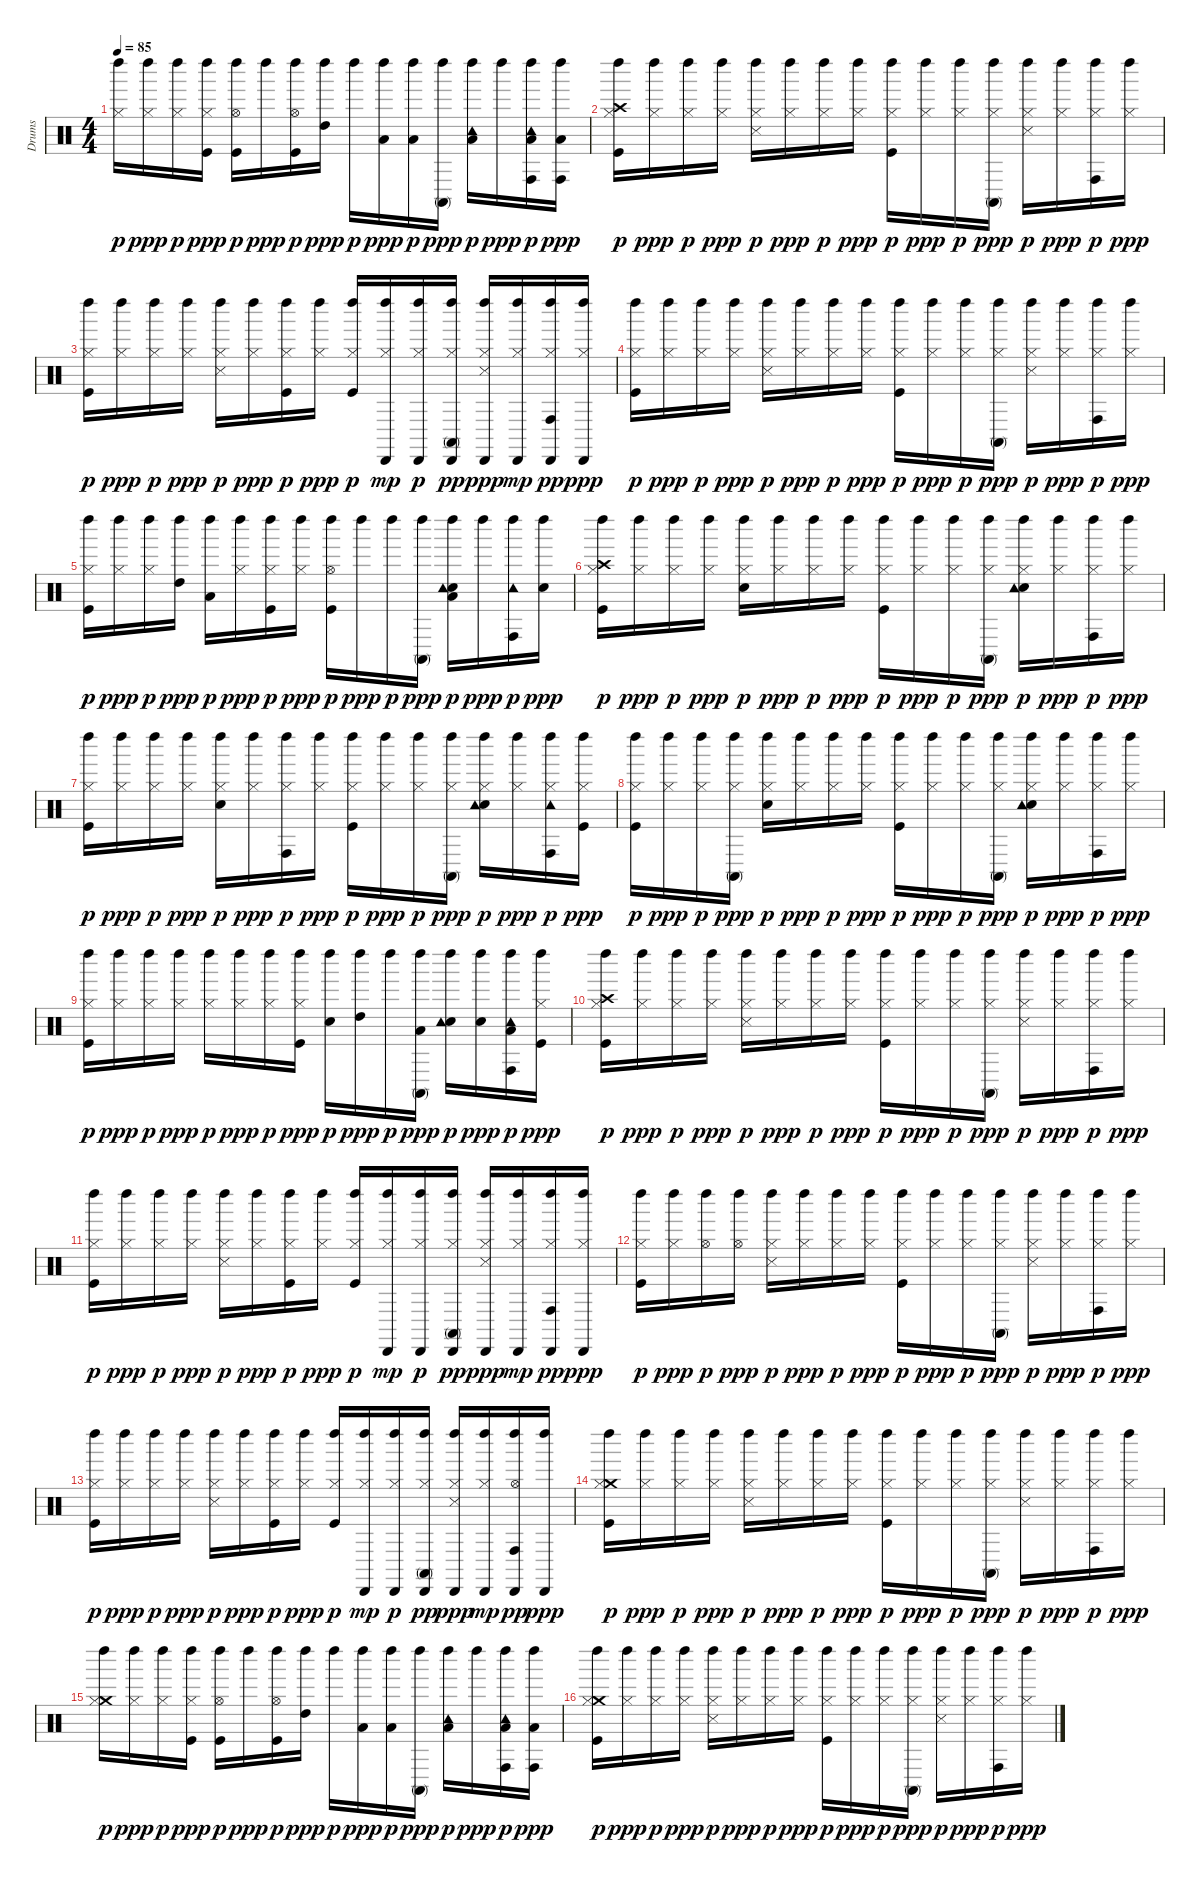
\track ("Drums" "Drums") {instrument percussion}
\staff {score}
\articulation defaults
\ts (4 4)
\tempo 85
\clef neutral
\ks c
("Hi-Hat (closed)" "Left Maraca (hit)").16{dy p} ("Hi-Hat (closed)" "Left Maraca (hit)").16{dy ppp} ("Hi-Hat (closed)" "Left Maraca (hit)").16{dy p} ("Kick (hit)" "Hi-Hat (closed)" "Left Maraca (hit)").16{dy ppp} ("Kick (hit)" "Hi-Hat (open)" "Left Maraca (hit)").16{dy p} "Left Maraca (hit)".16{dy ppp} ("Kick (hit)" "Hi-Hat (open)" "Left Maraca (hit)").16{dy p} ("High Tom (hit)" "Left Maraca (hit)").16{dy ppp} "Left Maraca (hit)".16{dy p} ("Low Tom (hit)" "Left Maraca (hit)").16{dy ppp} ("Low Tom (hit)" "Left Maraca (hit)").16{dy p} ("Conga high (mute)" "Left Maraca (hit)").16{dy ppp} ("Low Tom (hit)" "Tambourine (hit)" "Left Maraca (hit)").16{dy p} "Left Maraca (hit)".16{dy ppp} ("Low Floor Tom (hit)" "Conga high (hit)" "Tambourine (hit)" "Left Maraca (hit)").16{dy p} ("Low Floor Tom (hit)" "Conga high (hit)" "Left Maraca (hit)").16{dy ppp} |
("Kick (hit)" "Hi-Hat (closed)" "Crash high (hit)" "Left Maraca (hit)").16{dy p} ("Hi-Hat (closed)" "Left Maraca (hit)").16{dy ppp} ("Hi-Hat (closed)" "Left Maraca (hit)").16{dy p} ("Hi-Hat (closed)" "Left Maraca (hit)").16{dy ppp} ("Hi-Hat (closed)" "Snare (side stick) 3" "Left Maraca (hit)").16{dy p} ("Hi-Hat (closed)" "Left Maraca (hit)").16{dy ppp} ("Hi-Hat (closed)" "Left Maraca (hit)").16{dy p} ("Hi-Hat (closed)" "Left Maraca (hit)").16{dy ppp} ("Kick (hit)" "Hi-Hat (closed)" "Left Maraca (hit)").16{dy p} ("Hi-Hat (closed)" "Left Maraca (hit)").16{dy ppp} ("Hi-Hat (closed)" "Left Maraca (hit)").16{dy p} ("Hi-Hat (closed)" "Conga high (mute)" "Left Maraca (hit)").16{dy ppp} ("Hi-Hat (closed)" "Snare (side stick) 3" "Left Maraca (hit)").16{dy p} ("Hi-Hat (closed)" "Left Maraca (hit)").16{dy ppp} ("Hi-Hat (closed)" "Conga high (hit)" "Left Maraca (hit)").16{dy p} ("Hi-Hat (closed)" "Left Maraca (hit)").16{dy ppp} |
("Kick (hit)" "Hi-Hat (closed)" "Left Maraca (hit)").16{dy p} ("Hi-Hat (closed)" "Left Maraca (hit)").16{dy ppp} ("Hi-Hat (closed)" "Left Maraca (hit)").16{dy p} ("Hi-Hat (closed)" "Left Maraca (hit)").16{dy ppp} ("Hi-Hat (closed)" "Snare (side stick) 3" "Left Maraca (hit)").16{dy p} ("Hi-Hat (closed)" "Left Maraca (hit)").16{dy ppp} ("Kick (hit)" "Hi-Hat (closed)" "Left Maraca (hit)").16{dy p} ("Hi-Hat (closed)" "Left Maraca (hit)").16{dy ppp} ("Kick (hit)" "Hi-Hat (closed)" "Left Maraca (hit)").16{dy p} ("Hi-Hat (closed)" "Left Maraca (hit)" "Cabasa (hit)").16{dy mp} ("Hi-Hat (closed)" "Left Maraca (hit)" "Cabasa (hit)").16{dy p} ("Hi-Hat (closed)" "Conga high (mute)" "Left Maraca (hit)" "Cabasa (hit)").16{dy pp} ("Hi-Hat (closed)" "Snare (side stick) 3" "Left Maraca (hit)" "Cabasa (hit)").16{dy ppp} ("Hi-Hat (closed)" "Left Maraca (hit)" "Cabasa (hit)").16{dy mp} ("Hi-Hat (closed)" "Conga high (hit)" "Left Maraca (hit)" "Cabasa (hit)").16{dy pp} ("Hi-Hat (closed)" "Left Maraca (hit)" "Cabasa (hit)").16{dy ppp} |
("Kick (hit)" "Hi-Hat (closed)" "Left Maraca (hit)").16{dy p} ("Hi-Hat (closed)" "Left Maraca (hit)").16{dy ppp} ("Hi-Hat (closed)" "Left Maraca (hit)").16{dy p} ("Hi-Hat (closed)" "Left Maraca (hit)").16{dy ppp} ("Hi-Hat (closed)" "Snare (side stick) 3" "Left Maraca (hit)").16{dy p} ("Hi-Hat (closed)" "Left Maraca (hit)").16{dy ppp} ("Hi-Hat (closed)" "Left Maraca (hit)").16{dy p} ("Hi-Hat (closed)" "Left Maraca (hit)").16{dy ppp} ("Kick (hit)" "Hi-Hat (closed)" "Left Maraca (hit)").16{dy p} ("Hi-Hat (closed)" "Left Maraca (hit)").16{dy ppp} ("Hi-Hat (closed)" "Left Maraca (hit)").16{dy p} ("Hi-Hat (closed)" "Conga high (mute)" "Left Maraca (hit)").16{dy ppp} ("Hi-Hat (closed)" "Snare (side stick) 3" "Left Maraca (hit)").16{dy p} ("Hi-Hat (closed)" "Left Maraca (hit)").16{dy ppp} ("Hi-Hat (closed)" "Conga high (hit)" "Left Maraca (hit)").16{dy p} ("Hi-Hat (closed)" "Left Maraca (hit)").16{dy ppp} |
("Kick (hit)" "Hi-Hat (closed)" "Left Maraca (hit)").16{dy p} ("Hi-Hat (closed)" "Left Maraca (hit)").16{dy ppp} ("Hi-Hat (closed)" "Left Maraca (hit)").16{dy p} ("High Tom (hit)" "Left Maraca (hit)").16{dy ppp} ("Low Tom (hit)" "Left Maraca (hit)").16{dy p} ("Hi-Hat (closed)" "Left Maraca (hit)").16{dy ppp} ("Kick (hit)" "Hi-Hat (closed)" "Left Maraca (hit)").16{dy p} ("Hi-Hat (closed)" "Left Maraca (hit)").16{dy ppp} ("Kick (hit)" "Hi-Hat (open)" "Left Maraca (hit)").16{dy p} "Left Maraca (hit)".16{dy ppp} "Left Maraca (hit)".16{dy p} ("Conga high (mute)" "Left Maraca (hit)").16{dy ppp} ("Snare (hit) 2" "Low Floor Tom (hit)" "Tambourine (hit)" "Left Maraca (hit)").16{dy p} "Left Maraca (hit)".16{dy ppp} ("Conga high (hit)" "Tambourine (hit)" "Left Maraca (hit)").16{dy p} ("Snare (hit) 2" "Left Maraca (hit)").16{dy ppp} |
("Kick (hit)" "Hi-Hat (closed)" "Crash high (hit)" "Left Maraca (hit)").16{dy p} ("Hi-Hat (closed)" "Left Maraca (hit)").16{dy ppp} ("Hi-Hat (closed)" "Left Maraca (hit)").16{dy p} ("Hi-Hat (closed)" "Left Maraca (hit)").16{dy ppp} ("Snare (hit) 2" "Hi-Hat (closed)" "Left Maraca (hit)").16{dy p} ("Hi-Hat (closed)" "Left Maraca (hit)").16{dy ppp} ("Hi-Hat (closed)" "Left Maraca (hit)").16{dy p} ("Hi-Hat (closed)" "Left Maraca (hit)").16{dy ppp} ("Kick (hit)" "Hi-Hat (closed)" "Left Maraca (hit)").16{dy p} ("Hi-Hat (closed)" "Left Maraca (hit)").16{dy ppp} ("Hi-Hat (closed)" "Left Maraca (hit)").16{dy p} ("Hi-Hat (closed)" "Conga high (mute)" "Left Maraca (hit)").16{dy ppp} ("Snare (hit) 2" "Hi-Hat (closed)" "Tambourine (hit)" "Left Maraca (hit)").16{dy p} ("Hi-Hat (closed)" "Left Maraca (hit)").16{dy ppp} ("Hi-Hat (closed)" "Conga high (hit)" "Left Maraca (hit)").16{dy p} ("Hi-Hat (closed)" "Left Maraca (hit)").16{dy ppp} |
("Kick (hit)" "Hi-Hat (closed)" "Left Maraca (hit)").16{dy p} ("Hi-Hat (closed)" "Left Maraca (hit)").16{dy ppp} ("Hi-Hat (closed)" "Left Maraca (hit)").16{dy p} ("Hi-Hat (closed)" "Left Maraca (hit)").16{dy ppp} ("Snare (hit) 2" "Hi-Hat (closed)" "Left Maraca (hit)").16{dy p} ("Hi-Hat (closed)" "Left Maraca (hit)").16{dy ppp} ("Hi-Hat (closed)" "Conga high (hit)" "Left Maraca (hit)").16{dy p} ("Hi-Hat (closed)" "Left Maraca (hit)").16{dy ppp} ("Kick (hit)" "Hi-Hat (closed)" "Left Maraca (hit)").16{dy p} ("Hi-Hat (closed)" "Left Maraca (hit)").16{dy ppp} ("Hi-Hat (closed)" "Left Maraca (hit)").16{dy p} ("Hi-Hat (closed)" "Conga high (mute)" "Left Maraca (hit)").16{dy ppp} ("Snare (hit) 2" "Hi-Hat (closed)" "Tambourine (hit)" "Left Maraca (hit)").16{dy p} ("Hi-Hat (closed)" "Left Maraca (hit)").16{dy ppp} ("Hi-Hat (closed)" "Conga high (hit)" "Tambourine (hit)" "Left Maraca (hit)").16{dy p} ("Kick (hit)" "Hi-Hat (closed)" "Left Maraca (hit)").16{dy ppp} |
("Kick (hit)" "Hi-Hat (closed)" "Left Maraca (hit)").16{dy p} ("Hi-Hat (closed)" "Left Maraca (hit)").16{dy ppp} ("Hi-Hat (closed)" "Left Maraca (hit)").16{dy p} ("Hi-Hat (closed)" "Conga high (mute)" "Left Maraca (hit)").16{dy ppp} ("Snare (hit) 2" "Hi-Hat (closed)" "Left Maraca (hit)").16{dy p} ("Hi-Hat (closed)" "Left Maraca (hit)").16{dy ppp} ("Hi-Hat (closed)" "Left Maraca (hit)").16{dy p} ("Hi-Hat (closed)" "Left Maraca (hit)").16{dy ppp} ("Kick (hit)" "Hi-Hat (closed)" "Left Maraca (hit)").16{dy p} ("Hi-Hat (closed)" "Left Maraca (hit)").16{dy ppp} ("Hi-Hat (closed)" "Left Maraca (hit)").16{dy p} ("Hi-Hat (closed)" "Conga high (mute)" "Left Maraca (hit)").16{dy ppp} ("Snare (hit) 2" "Hi-Hat (closed)" "Tambourine (hit)" "Left Maraca (hit)").16{dy p} ("Hi-Hat (closed)" "Left Maraca (hit)").16{dy ppp} ("Hi-Hat (closed)" "Conga high (hit)" "Left Maraca (hit)").16{dy p} ("Hi-Hat (closed)" "Left Maraca (hit)").16{dy ppp} |
("Kick (hit)" "Hi-Hat (closed)" "Left Maraca (hit)").16{dy p} ("Hi-Hat (closed)" "Left Maraca (hit)").16{dy ppp} ("Hi-Hat (closed)" "Left Maraca (hit)").16{dy p} ("Hi-Hat (closed)" "Left Maraca (hit)").16{dy ppp} ("Hi-Hat (closed)" "Left Maraca (hit)").16{dy p} ("Hi-Hat (closed)" "Left Maraca (hit)").16{dy ppp} ("Hi-Hat (closed)" "Left Maraca (hit)").16{dy p} ("Kick (hit)" "Hi-Hat (closed)" "Left Maraca (hit)").16{dy ppp} ("Snare (hit) 2" "Left Maraca (hit)").16{dy p} ("High Tom (hit)" "Left Maraca (hit)").16{dy ppp} "Left Maraca (hit)".16{dy p} ("Low Tom (hit)" "Conga high (mute)" "Left Maraca (hit)").16{dy ppp} ("Snare (hit) 2" "Tambourine (hit)" "Left Maraca (hit)").16{dy p} ("Snare (hit) 2" "Left Maraca (hit)").16{dy ppp} ("Low Floor Tom (hit)" "Conga high (hit)" "Tambourine (hit)" "Left Maraca (hit)").16{dy p} ("Kick (hit)" "Hi-Hat (closed)" "Left Maraca (hit)").16{dy ppp} |
("Kick (hit)" "Hi-Hat (closed)" "Crash high (hit)" "Left Maraca (hit)").16{dy p} ("Hi-Hat (closed)" "Left Maraca (hit)").16{dy ppp} ("Hi-Hat (closed)" "Left Maraca (hit)").16{dy p} ("Hi-Hat (closed)" "Left Maraca (hit)").16{dy ppp} ("Hi-Hat (closed)" "Snare (side stick) 3" "Left Maraca (hit)").16{dy p} ("Hi-Hat (closed)" "Left Maraca (hit)").16{dy ppp} ("Hi-Hat (closed)" "Left Maraca (hit)").16{dy p} ("Hi-Hat (closed)" "Left Maraca (hit)").16{dy ppp} ("Kick (hit)" "Hi-Hat (closed)" "Left Maraca (hit)").16{dy p} ("Hi-Hat (closed)" "Left Maraca (hit)").16{dy ppp} ("Hi-Hat (closed)" "Left Maraca (hit)").16{dy p} ("Hi-Hat (closed)" "Conga high (mute)" "Left Maraca (hit)").16{dy ppp} ("Hi-Hat (closed)" "Snare (side stick) 3" "Left Maraca (hit)").16{dy p} ("Hi-Hat (closed)" "Left Maraca (hit)").16{dy ppp} ("Hi-Hat (closed)" "Conga high (hit)" "Left Maraca (hit)").16{dy p} ("Hi-Hat (closed)" "Left Maraca (hit)").16{dy ppp} |
("Kick (hit)" "Hi-Hat (closed)" "Left Maraca (hit)").16{dy p} ("Hi-Hat (closed)" "Left Maraca (hit)").16{dy ppp} ("Hi-Hat (closed)" "Left Maraca (hit)").16{dy p} ("Hi-Hat (closed)" "Left Maraca (hit)").16{dy ppp} ("Hi-Hat (closed)" "Snare (side stick) 3" "Left Maraca (hit)").16{dy p} ("Hi-Hat (closed)" "Left Maraca (hit)").16{dy ppp} ("Kick (hit)" "Hi-Hat (closed)" "Left Maraca (hit)").16{dy p} ("Hi-Hat (closed)" "Left Maraca (hit)").16{dy ppp} ("Kick (hit)" "Hi-Hat (closed)" "Left Maraca (hit)").16{dy p} ("Hi-Hat (closed)" "Left Maraca (hit)" "Cabasa (hit)").16{dy mp} ("Hi-Hat (closed)" "Left Maraca (hit)" "Cabasa (hit)").16{dy p} ("Hi-Hat (closed)" "Conga high (mute)" "Left Maraca (hit)" "Cabasa (hit)").16{dy pp} ("Hi-Hat (closed)" "Snare (side stick) 3" "Left Maraca (hit)" "Cabasa (hit)").16{dy ppp} ("Hi-Hat (closed)" "Left Maraca (hit)" "Cabasa (hit)").16{dy mp} ("Hi-Hat (closed)" "Conga high (hit)" "Left Maraca (hit)" "Cabasa (hit)").16{dy pp} ("Hi-Hat (closed)" "Left Maraca (hit)" "Cabasa (hit)").16{dy ppp} |
("Kick (hit)" "Hi-Hat (closed)" "Left Maraca (hit)").16{dy p} ("Hi-Hat (closed)" "Left Maraca (hit)").16{dy ppp} ("Hi-Hat (open)" "Left Maraca (hit)").16{dy p} ("Hi-Hat (open)" "Left Maraca (hit)").16{dy ppp} ("Hi-Hat (closed)" "Snare (side stick) 3" "Left Maraca (hit)").16{dy p} ("Hi-Hat (closed)" "Left Maraca (hit)").16{dy ppp} ("Hi-Hat (closed)" "Left Maraca (hit)").16{dy p} ("Hi-Hat (closed)" "Left Maraca (hit)").16{dy ppp} ("Kick (hit)" "Hi-Hat (closed)" "Left Maraca (hit)").16{dy p} ("Hi-Hat (closed)" "Left Maraca (hit)").16{dy ppp} ("Hi-Hat (closed)" "Left Maraca (hit)").16{dy p} ("Hi-Hat (closed)" "Conga high (mute)" "Left Maraca (hit)").16{dy ppp} ("Hi-Hat (closed)" "Snare (side stick) 3" "Left Maraca (hit)").16{dy p} ("Hi-Hat (closed)" "Left Maraca (hit)").16{dy ppp} ("Hi-Hat (closed)" "Conga high (hit)" "Left Maraca (hit)").16{dy p} ("Hi-Hat (closed)" "Left Maraca (hit)").16{dy ppp} |
("Kick (hit)" "Hi-Hat (closed)" "Left Maraca (hit)").16{dy p} ("Hi-Hat (closed)" "Left Maraca (hit)").16{dy ppp} ("Hi-Hat (closed)" "Left Maraca (hit)").16{dy p} ("Hi-Hat (closed)" "Left Maraca (hit)").16{dy ppp} ("Hi-Hat (closed)" "Snare (side stick) 3" "Left Maraca (hit)").16{dy p} ("Hi-Hat (closed)" "Left Maraca (hit)").16{dy ppp} ("Kick (hit)" "Hi-Hat (closed)" "Left Maraca (hit)").16{dy p} ("Hi-Hat (closed)" "Left Maraca (hit)").16{dy ppp} ("Kick (hit)" "Hi-Hat (closed)" "Left Maraca (hit)").16{dy p} ("Hi-Hat (closed)" "Left Maraca (hit)" "Cabasa (hit)").16{dy mp} ("Hi-Hat (closed)" "Left Maraca (hit)" "Cabasa (hit)").16{dy p} ("Hi-Hat (closed)" "Conga high (mute)" "Left Maraca (hit)" "Cabasa (hit)").16{dy pp} ("Hi-Hat (closed)" "Snare (side stick) 3" "Left Maraca (hit)" "Cabasa (hit)").16{dy ppp} ("Hi-Hat (closed)" "Left Maraca (hit)" "Cabasa (hit)").16{dy mp} ("Hi-Hat (open)" "Conga high (hit)" "Left Maraca (hit)" "Cabasa (hit)").16{dy pp} ("Left Maraca (hit)" "Cabasa (hit)").16{dy ppp} |
("Crash medium (hit)" "Kick (hit)" "Hi-Hat (closed)" "Left Maraca (hit)").16{dy p} ("Hi-Hat (closed)" "Left Maraca (hit)").16{dy ppp} ("Hi-Hat (closed)" "Left Maraca (hit)").16{dy p} ("Hi-Hat (closed)" "Left Maraca (hit)").16{dy ppp} ("Hi-Hat (closed)" "Snare (side stick) 3" "Left Maraca (hit)").16{dy p} ("Hi-Hat (closed)" "Left Maraca (hit)").16{dy ppp} ("Hi-Hat (closed)" "Left Maraca (hit)").16{dy p} ("Hi-Hat (closed)" "Left Maraca (hit)").16{dy ppp} ("Kick (hit)" "Hi-Hat (closed)" "Left Maraca (hit)").16{dy p} ("Hi-Hat (closed)" "Left Maraca (hit)").16{dy ppp} ("Hi-Hat (closed)" "Left Maraca (hit)").16{dy p} ("Hi-Hat (closed)" "Conga high (mute)" "Left Maraca (hit)").16{dy ppp} ("Hi-Hat (closed)" "Snare (side stick) 3" "Left Maraca (hit)").16{dy p} ("Hi-Hat (closed)" "Left Maraca (hit)").16{dy ppp} ("Hi-Hat (closed)" "Conga high (hit)" "Left Maraca (hit)").16{dy p} ("Hi-Hat (closed)" "Left Maraca (hit)").16{dy ppp} |
("Crash medium (hit)" "Hi-Hat (closed)" "Left Maraca (hit)").16{dy p} ("Hi-Hat (closed)" "Left Maraca (hit)").16{dy ppp} ("Hi-Hat (closed)" "Left Maraca (hit)").16{dy p} ("Kick (hit)" "Hi-Hat (closed)" "Left Maraca (hit)").16{dy ppp} ("Kick (hit)" "Hi-Hat (open)" "Left Maraca (hit)").16{dy p} "Left Maraca (hit)".16{dy ppp} ("Kick (hit)" "Hi-Hat (open)" "Left Maraca (hit)").16{dy p} ("High Tom (hit)" "Left Maraca (hit)").16{dy ppp} "Left Maraca (hit)".16{dy p} ("Low Tom (hit)" "Left Maraca (hit)").16{dy ppp} ("Low Tom (hit)" "Left Maraca (hit)").16{dy p} ("Conga high (mute)" "Left Maraca (hit)").16{dy ppp} ("Low Tom (hit)" "Tambourine (hit)" "Left Maraca (hit)").16{dy p} "Left Maraca (hit)".16{dy ppp} ("Low Floor Tom (hit)" "Conga high (hit)" "Tambourine (hit)" "Left Maraca (hit)").16{dy p} ("Low Floor Tom (hit)" "Conga high (hit)" "Left Maraca (hit)").16{dy ppp} |
("Crash medium (hit)" "Kick (hit)" "Hi-Hat (closed)" "Left Maraca (hit)").16{dy p} ("Hi-Hat (closed)" "Left Maraca (hit)").16{dy ppp} ("Hi-Hat (closed)" "Left Maraca (hit)").16{dy p} ("Hi-Hat (closed)" "Left Maraca (hit)").16{dy ppp} ("Hi-Hat (closed)" "Snare (side stick) 3" "Left Maraca (hit)").16{dy p} ("Hi-Hat (closed)" "Left Maraca (hit)").16{dy ppp} ("Hi-Hat (closed)" "Left Maraca (hit)").16{dy p} ("Hi-Hat (closed)" "Left Maraca (hit)").16{dy ppp} ("Kick (hit)" "Hi-Hat (closed)" "Left Maraca (hit)").16{dy p} ("Hi-Hat (closed)" "Left Maraca (hit)").16{dy ppp} ("Hi-Hat (closed)" "Left Maraca (hit)").16{dy p} ("Hi-Hat (closed)" "Conga high (mute)" "Left Maraca (hit)").16{dy ppp} ("Hi-Hat (closed)" "Snare (side stick) 3" "Left Maraca (hit)").16{dy p} ("Hi-Hat (closed)" "Left Maraca (hit)").16{dy ppp} ("Hi-Hat (closed)" "Conga high (hit)" "Left Maraca (hit)").16{dy p} ("Hi-Hat (closed)" "Left Maraca (hit)").16{dy ppp}
